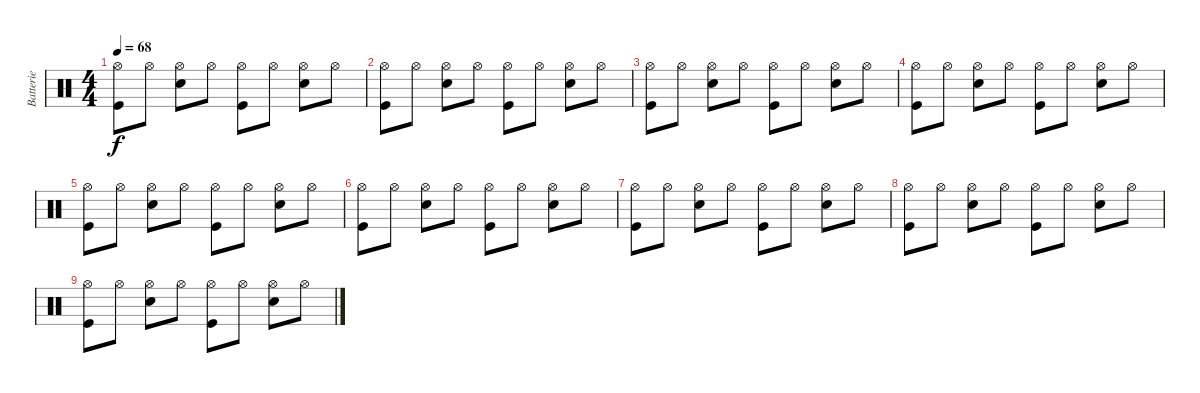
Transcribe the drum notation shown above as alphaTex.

\track ("Batterie" "Batterie") {instrument percussion}
\staff {score}
\articulation defaults
\ts (4 4)
\tempo 68
\clef neutral
\ks c
("Hi-Hat (open)" "Kick (hit)").8{dy f} "Hi-Hat (open)".8 ("Hi-Hat (open)" "Snare (hit) 2").8 "Hi-Hat (open)".8 ("Hi-Hat (open)" "Kick (hit)").8 "Hi-Hat (open)".8 ("Hi-Hat (open)" "Snare (hit) 2").8 "Hi-Hat (open)".8 |
("Hi-Hat (open)" "Kick (hit)").8 "Hi-Hat (open)".8 ("Hi-Hat (open)" "Snare (hit) 2").8 "Hi-Hat (open)".8 ("Hi-Hat (open)" "Kick (hit)").8 "Hi-Hat (open)".8 ("Hi-Hat (open)" "Snare (hit) 2").8 "Hi-Hat (open)".8 |
("Hi-Hat (open)" "Kick (hit)").8 "Hi-Hat (open)".8 ("Hi-Hat (open)" "Snare (hit) 2").8 "Hi-Hat (open)".8 ("Hi-Hat (open)" "Kick (hit)").8 "Hi-Hat (open)".8 ("Hi-Hat (open)" "Snare (hit) 2").8 "Hi-Hat (open)".8 |
("Hi-Hat (open)" "Kick (hit)").8 "Hi-Hat (open)".8 ("Hi-Hat (open)" "Snare (hit) 2").8 "Hi-Hat (open)".8 ("Hi-Hat (open)" "Kick (hit)").8 "Hi-Hat (open)".8 ("Hi-Hat (open)" "Snare (hit) 2").8 "Hi-Hat (open)".8 |
("Hi-Hat (open)" "Kick (hit)").8 "Hi-Hat (open)".8 ("Hi-Hat (open)" "Snare (hit) 2").8 "Hi-Hat (open)".8 ("Hi-Hat (open)" "Kick (hit)").8 "Hi-Hat (open)".8 ("Hi-Hat (open)" "Snare (hit) 2").8 "Hi-Hat (open)".8 |
("Hi-Hat (open)" "Kick (hit)").8 "Hi-Hat (open)".8 ("Hi-Hat (open)" "Snare (hit) 2").8 "Hi-Hat (open)".8 ("Hi-Hat (open)" "Kick (hit)").8 "Hi-Hat (open)".8 ("Hi-Hat (open)" "Snare (hit) 2").8 "Hi-Hat (open)".8 |
("Hi-Hat (open)" "Kick (hit)").8 "Hi-Hat (open)".8 ("Hi-Hat (open)" "Snare (hit) 2").8 "Hi-Hat (open)".8 ("Hi-Hat (open)" "Kick (hit)").8 "Hi-Hat (open)".8 ("Hi-Hat (open)" "Snare (hit) 2").8 "Hi-Hat (open)".8 |
("Hi-Hat (open)" "Kick (hit)").8 "Hi-Hat (open)".8 ("Hi-Hat (open)" "Snare (hit) 2").8 "Hi-Hat (open)".8 ("Hi-Hat (open)" "Kick (hit)").8 "Hi-Hat (open)".8 ("Hi-Hat (open)" "Snare (hit) 2").8 "Hi-Hat (open)".8 |
("Hi-Hat (open)" "Kick (hit)").8 "Hi-Hat (open)".8 ("Hi-Hat (open)" "Snare (hit) 2").8 "Hi-Hat (open)".8 ("Hi-Hat (open)" "Kick (hit)").8 "Hi-Hat (open)".8 ("Hi-Hat (open)" "Snare (hit) 2").8 "Hi-Hat (open)".8
